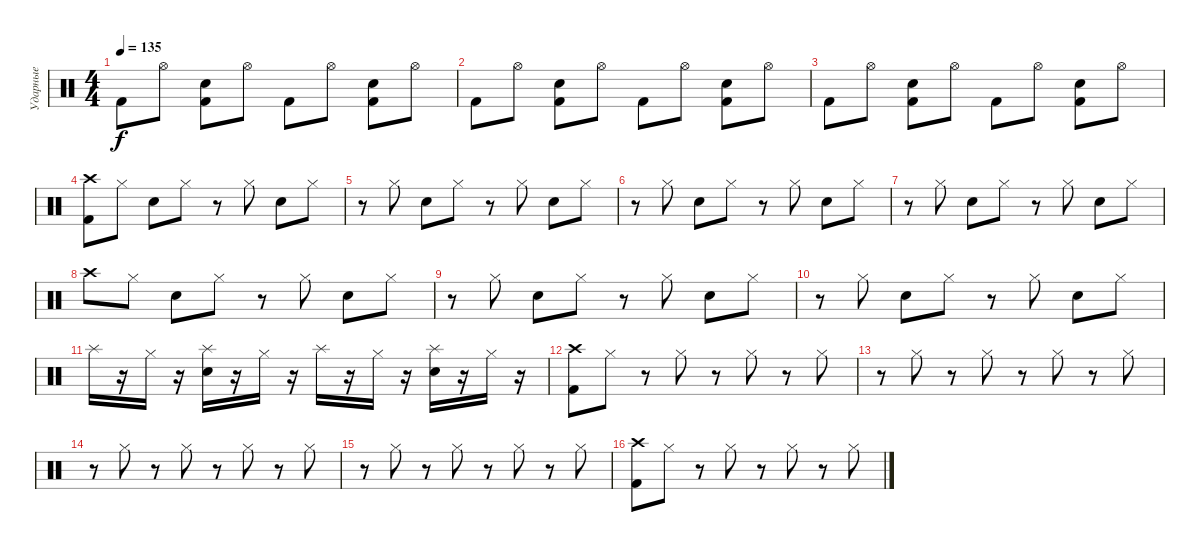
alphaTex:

\track ("Ударные" "Ударные") {instrument percussion}
\staff {score}
\articulation defaults
\ts (4 4)
\tempo 135
\clef neutral
\ks c "Kick (hit) 2".8{dy f} "Hi-Hat (open)".8
("Kick (hit) 2" "Snare (hit) 2").8 "Hi-Hat (open)".8 "Kick (hit) 2".8 "Hi-Hat (open)".8 ("Kick (hit) 2" "Snare (hit) 2").8 "Hi-Hat (open)".8 |
"Kick (hit) 2".8 "Hi-Hat (open)".8 ("Kick (hit) 2" "Snare (hit) 2").8 "Hi-Hat (open)".8 "Kick (hit) 2".8 "Hi-Hat (open)".8 ("Kick (hit) 2" "Snare (hit) 2").8 "Hi-Hat (open)".8 |
"Kick (hit) 2".8 "Hi-Hat (open)".8 ("Kick (hit) 2" "Snare (hit) 2").8 "Hi-Hat (open)".8 "Kick (hit) 2".8 "Hi-Hat (open)".8 ("Kick (hit) 2" "Snare (hit) 2").8 "Hi-Hat (open)".8 |
("Kick (hit) 2" "Crash high (hit)").8 "Hi-Hat (closed)".8 "Hand Clap (hit)".8 "Hi-Hat (closed)".8 r.8 "Hi-Hat (closed)".8 "Hand Clap (hit)".8 "Hi-Hat (closed)".8 |
r.8 "Hi-Hat (closed)".8 "Hand Clap (hit)".8 "Hi-Hat (closed)".8 r.8 "Hi-Hat (closed)".8 "Hand Clap (hit)".8 "Hi-Hat (closed)".8 |
r.8 "Hi-Hat (closed)".8 "Hand Clap (hit)".8 "Hi-Hat (closed)".8 r.8 "Hi-Hat (closed)".8 "Hand Clap (hit)".8 "Hi-Hat (closed)".8 |
r.8 "Hi-Hat (closed)".8 "Hand Clap (hit)".8 "Hi-Hat (closed)".8 r.8 "Hi-Hat (closed)".8 "Hand Clap (hit)".8 "Hi-Hat (closed)".8 |
"Crash high (hit)".8 "Hi-Hat (closed)".8 "Hand Clap (hit)".8 "Hi-Hat (closed)".8 r.8 "Hi-Hat (closed)".8 "Hand Clap (hit)".8 "Hi-Hat (closed)".8 |
r.8 "Hi-Hat (closed)".8 "Hand Clap (hit)".8 "Hi-Hat (closed)".8 r.8 "Hi-Hat (closed)".8 "Hand Clap (hit)".8 "Hi-Hat (closed)".8 |
r.8 "Hi-Hat (closed)".8 "Hand Clap (hit)".8 "Hi-Hat (closed)".8 r.8 "Hi-Hat (closed)".8 "Hand Clap (hit)".8 "Hi-Hat (closed)".8 |
"Splash (hit)".16 r.16 "Hi-Hat (closed)".16 r.16 ("Hand Clap (hit)" "Splash (hit)").16 r.16 "Hi-Hat (closed)".16 r.16 "Splash (hit)".16 r.16 "Hi-Hat (closed)".16 r.16 ("Hand Clap (hit)" "Splash (hit)").16 r.16 "Hi-Hat (closed)".16 r.16 |
("Kick (hit) 2" "Crash high (hit)").8 "Hi-Hat (closed)".8 r.8 "Hi-Hat (closed)".8 r.8 "Hi-Hat (closed)".8 r.8 "Hi-Hat (closed)".8 |
r.8 "Hi-Hat (closed)".8 r.8 "Hi-Hat (closed)".8 r.8 "Hi-Hat (closed)".8 r.8 "Hi-Hat (closed)".8 |
r.8 "Hi-Hat (closed)".8 r.8 "Hi-Hat (closed)".8 r.8 "Hi-Hat (closed)".8 r.8 "Hi-Hat (closed)".8 |
r.8 "Hi-Hat (closed)".8 r.8 "Hi-Hat (closed)".8 r.8 "Hi-Hat (closed)".8 r.8 "Hi-Hat (closed)".8 |
("Kick (hit) 2" "Crash high (hit)").8 "Hi-Hat (closed)".8 r.8 "Hi-Hat (closed)".8 r.8 "Hi-Hat (closed)".8 r.8 "Hi-Hat (closed)".8
